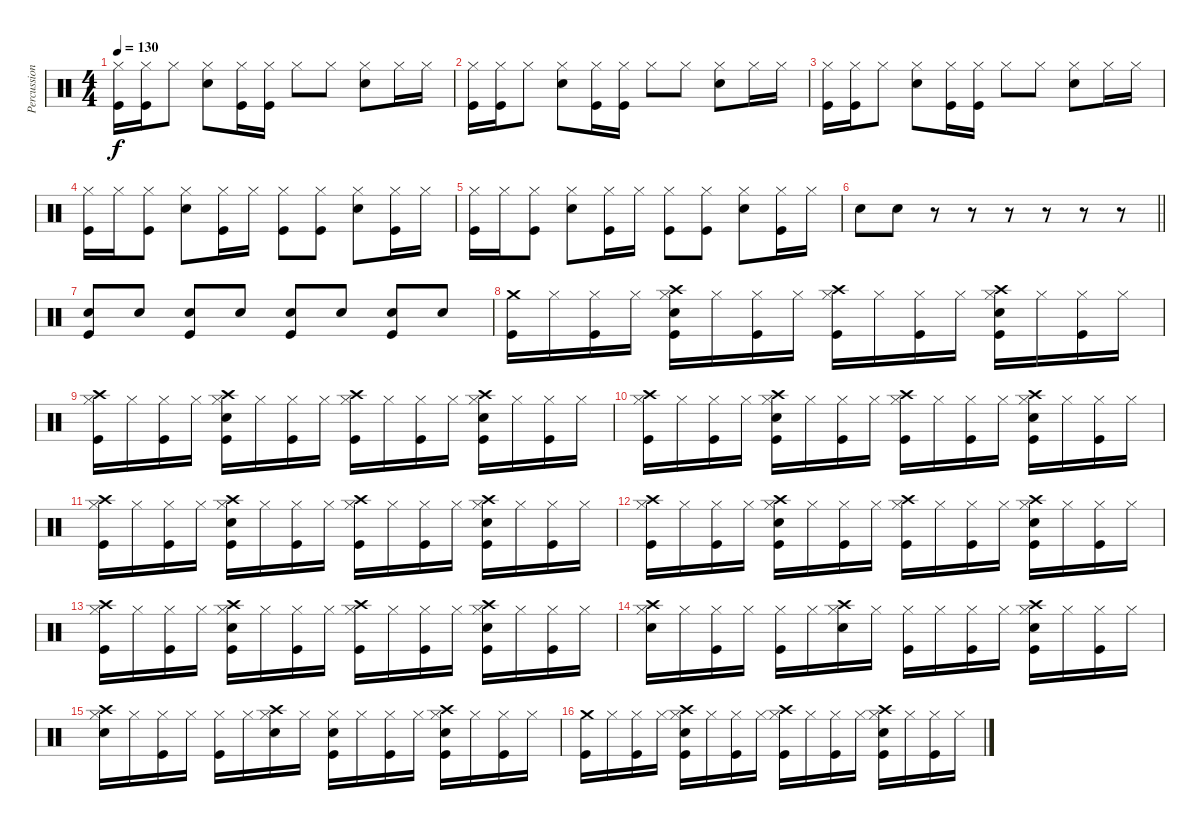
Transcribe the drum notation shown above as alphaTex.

\track ("Percussion" "Percussion") {instrument percussion}
\staff {score}
\articulation defaults
\ts (4 4)
\tempo 130
\clef neutral
\ks c
("Hi-Hat (closed)" "Kick (hit)").16{dy f} ("Hi-Hat (closed)" "Kick (hit)").16 "Hi-Hat (closed)".8 ("Hi-Hat (closed)" "Electric Snare (hit)").8 ("Hi-Hat (closed)" "Kick (hit)").16 ("Hi-Hat (closed)" "Kick (hit)").16 "Hi-Hat (closed)".8 "Hi-Hat (closed)".8 ("Hi-Hat (closed)" "Electric Snare (hit)").8 "Hi-Hat (closed)".16 "Hi-Hat (closed)".16 |
("Hi-Hat (closed)" "Kick (hit)").16 ("Hi-Hat (closed)" "Kick (hit)").16 "Hi-Hat (closed)".8 ("Hi-Hat (closed)" "Electric Snare (hit)").8 ("Hi-Hat (closed)" "Kick (hit)").16 ("Hi-Hat (closed)" "Kick (hit)").16 "Hi-Hat (closed)".8 "Hi-Hat (closed)".8 ("Hi-Hat (closed)" "Electric Snare (hit)").8 "Hi-Hat (closed)".16 "Hi-Hat (closed)".16 |
("Hi-Hat (closed)" "Kick (hit)").16 ("Hi-Hat (closed)" "Kick (hit)").16 "Hi-Hat (closed)".8 ("Hi-Hat (closed)" "Electric Snare (hit)").8 ("Hi-Hat (closed)" "Kick (hit)").16 ("Hi-Hat (closed)" "Kick (hit)").16 "Hi-Hat (closed)".8 "Hi-Hat (closed)".8 ("Hi-Hat (closed)" "Electric Snare (hit)").8 "Hi-Hat (closed)".16 "Hi-Hat (closed)".16 |
("Hi-Hat (closed)" "Kick (hit)").16 "Hi-Hat (closed)".16 ("Hi-Hat (closed)" "Kick (hit)").8 ("Hi-Hat (closed)" "Electric Snare (hit)").8 ("Hi-Hat (closed)" "Kick (hit)").16 "Hi-Hat (closed)".16 ("Hi-Hat (closed)" "Kick (hit)").8 ("Hi-Hat (closed)" "Kick (hit)").8 ("Hi-Hat (closed)" "Electric Snare (hit)").8 ("Hi-Hat (closed)" "Kick (hit)").16 "Hi-Hat (closed)".16 |
("Hi-Hat (closed)" "Kick (hit)").16 "Hi-Hat (closed)".16 ("Hi-Hat (closed)" "Kick (hit)").8 ("Hi-Hat (closed)" "Electric Snare (hit)").8 ("Hi-Hat (closed)" "Kick (hit)").16 "Hi-Hat (closed)".16 ("Hi-Hat (closed)" "Kick (hit)").8 ("Hi-Hat (closed)" "Kick (hit)").8 ("Hi-Hat (closed)" "Electric Snare (hit)").8 ("Hi-Hat (closed)" "Kick (hit)").16 "Hi-Hat (closed)".16 |
\barLineRight lightlight "Electric Snare (hit)".8 "Electric Snare (hit)".8
r.8 r.8 r.8 r.8 r.8 r.8 |
("Electric Snare (hit)" "Kick (hit)").8 "Electric Snare (hit)".8 ("Electric Snare (hit)" "Kick (hit)").8 "Electric Snare (hit)".8 ("Electric Snare (hit)" "Kick (hit)").8 "Electric Snare (hit)".8 ("Electric Snare (hit)" "Kick (hit)").8 "Electric Snare (hit)".8 |
("Crash medium (hit)" "Kick (hit)").16 "Hi-Hat (closed)".16 ("Hi-Hat (closed)" "Kick (hit)").16 "Hi-Hat (closed)".16 ("Crash high (hit)" "Hi-Hat (closed)" "Electric Snare (hit)" "Kick (hit)").16 "Hi-Hat (closed)".16 ("Hi-Hat (closed)" "Kick (hit)").16 "Hi-Hat (closed)".16 ("Crash high (hit)" "Hi-Hat (closed)" "Kick (hit)").16 "Hi-Hat (closed)".16 ("Hi-Hat (closed)" "Kick (hit)").16 "Hi-Hat (closed)".16 ("Crash high (hit)" "Hi-Hat (closed)" "Electric Snare (hit)" "Kick (hit)").16 "Hi-Hat (closed)".16 ("Hi-Hat (closed)" "Kick (hit)").16 "Hi-Hat (closed)".16 |
("Crash high (hit)" "Hi-Hat (closed)" "Kick (hit)").16 "Hi-Hat (closed)".16 ("Hi-Hat (closed)" "Kick (hit)").16 "Hi-Hat (closed)".16 ("Crash high (hit)" "Hi-Hat (closed)" "Electric Snare (hit)" "Kick (hit)").16 "Hi-Hat (closed)".16 ("Hi-Hat (closed)" "Kick (hit)").16 "Hi-Hat (closed)".16 ("Crash high (hit)" "Hi-Hat (closed)" "Kick (hit)").16 "Hi-Hat (closed)".16 ("Hi-Hat (closed)" "Kick (hit)").16 "Hi-Hat (closed)".16 ("Crash high (hit)" "Hi-Hat (closed)" "Electric Snare (hit)" "Kick (hit)").16 "Hi-Hat (closed)".16 ("Hi-Hat (closed)" "Kick (hit)").16 "Hi-Hat (closed)".16 |
("Crash high (hit)" "Hi-Hat (closed)" "Kick (hit)").16 "Hi-Hat (closed)".16 ("Hi-Hat (closed)" "Kick (hit)").16 "Hi-Hat (closed)".16 ("Crash high (hit)" "Hi-Hat (closed)" "Electric Snare (hit)" "Kick (hit)").16 "Hi-Hat (closed)".16 ("Hi-Hat (closed)" "Kick (hit)").16 "Hi-Hat (closed)".16 ("Crash high (hit)" "Hi-Hat (closed)" "Kick (hit)").16 "Hi-Hat (closed)".16 ("Hi-Hat (closed)" "Kick (hit)").16 "Hi-Hat (closed)".16 ("Crash high (hit)" "Hi-Hat (closed)" "Electric Snare (hit)" "Kick (hit)").16 "Hi-Hat (closed)".16 ("Hi-Hat (closed)" "Kick (hit)").16 "Hi-Hat (closed)".16 |
("Crash high (hit)" "Hi-Hat (closed)" "Kick (hit)").16 "Hi-Hat (closed)".16 ("Hi-Hat (closed)" "Kick (hit)").16 "Hi-Hat (closed)".16 ("Crash high (hit)" "Hi-Hat (closed)" "Electric Snare (hit)" "Kick (hit)").16 "Hi-Hat (closed)".16 ("Hi-Hat (closed)" "Kick (hit)").16 "Hi-Hat (closed)".16 ("Crash high (hit)" "Hi-Hat (closed)" "Kick (hit)").16 "Hi-Hat (closed)".16 ("Hi-Hat (closed)" "Kick (hit)").16 "Hi-Hat (closed)".16 ("Crash high (hit)" "Hi-Hat (closed)" "Electric Snare (hit)" "Kick (hit)").16 "Hi-Hat (closed)".16 ("Hi-Hat (closed)" "Kick (hit)").16 "Hi-Hat (closed)".16 |
("Crash high (hit)" "Hi-Hat (closed)" "Kick (hit)").16 "Hi-Hat (closed)".16 ("Hi-Hat (closed)" "Kick (hit)").16 "Hi-Hat (closed)".16 ("Crash high (hit)" "Hi-Hat (closed)" "Electric Snare (hit)" "Kick (hit)").16 "Hi-Hat (closed)".16 ("Hi-Hat (closed)" "Kick (hit)").16 "Hi-Hat (closed)".16 ("Crash high (hit)" "Hi-Hat (closed)" "Kick (hit)").16 "Hi-Hat (closed)".16 ("Hi-Hat (closed)" "Kick (hit)").16 "Hi-Hat (closed)".16 ("Crash high (hit)" "Hi-Hat (closed)" "Electric Snare (hit)" "Kick (hit)").16 "Hi-Hat (closed)".16 ("Hi-Hat (closed)" "Kick (hit)").16 "Hi-Hat (closed)".16 |
("Crash high (hit)" "Hi-Hat (closed)" "Kick (hit)").16 "Hi-Hat (closed)".16 ("Hi-Hat (closed)" "Kick (hit)").16 "Hi-Hat (closed)".16 ("Crash high (hit)" "Hi-Hat (closed)" "Electric Snare (hit)" "Kick (hit)").16 "Hi-Hat (closed)".16 ("Hi-Hat (closed)" "Kick (hit)").16 "Hi-Hat (closed)".16 ("Crash high (hit)" "Hi-Hat (closed)" "Kick (hit)").16 "Hi-Hat (closed)".16 ("Hi-Hat (closed)" "Kick (hit)").16 "Hi-Hat (closed)".16 ("Crash high (hit)" "Hi-Hat (closed)" "Electric Snare (hit)" "Kick (hit)").16 "Hi-Hat (closed)".16 ("Hi-Hat (closed)" "Kick (hit)").16 "Hi-Hat (closed)".16 |
("Crash high (hit)" "Hi-Hat (closed)" "Electric Snare (hit)").16 "Hi-Hat (closed)".16 ("Hi-Hat (closed)" "Kick (hit)").16 "Hi-Hat (closed)".16 ("Hi-Hat (closed)" "Kick (hit)").16 "Hi-Hat (closed)".16 ("Crash high (hit)" "Hi-Hat (closed)" "Electric Snare (hit)").16 "Hi-Hat (closed)".16 ("Hi-Hat (closed)" "Kick (hit)").16 "Hi-Hat (closed)".16 ("Hi-Hat (closed)" "Kick (hit)").16 "Hi-Hat (closed)".16 ("Crash high (hit)" "Hi-Hat (closed)" "Electric Snare (hit)" "Kick (hit)").16 "Hi-Hat (closed)".16 ("Hi-Hat (closed)" "Kick (hit)").16 "Hi-Hat (closed)".16 |
("Crash high (hit)" "Hi-Hat (closed)" "Electric Snare (hit)").16 "Hi-Hat (closed)".16 ("Hi-Hat (closed)" "Kick (hit)").16 "Hi-Hat (closed)".16 ("Hi-Hat (closed)" "Kick (hit)").16 "Hi-Hat (closed)".16 ("Crash high (hit)" "Hi-Hat (closed)" "Electric Snare (hit)").16 "Hi-Hat (closed)".16 ("Hi-Hat (closed)" "Electric Snare (hit)" "Kick (hit)").16 "Hi-Hat (closed)".16 ("Hi-Hat (closed)" "Kick (hit)").16 "Hi-Hat (closed)".16 ("Crash high (hit)" "Hi-Hat (closed)" "Electric Snare (hit)" "Kick (hit)").16 "Hi-Hat (closed)".16 ("Hi-Hat (closed)" "Kick (hit)").16 "Hi-Hat (closed)".16 |
("Crash medium (hit)" "Kick (hit)").16 "Hi-Hat (closed)".16 ("Hi-Hat (closed)" "Kick (hit)").16 "Hi-Hat (closed)".16 ("Crash high (hit)" "Hi-Hat (closed)" "Electric Snare (hit)" "Kick (hit)").16 "Hi-Hat (closed)".16 ("Hi-Hat (closed)" "Kick (hit)").16 "Hi-Hat (closed)".16 ("Crash high (hit)" "Hi-Hat (closed)" "Kick (hit)").16 "Hi-Hat (closed)".16 ("Hi-Hat (closed)" "Kick (hit)").16 "Hi-Hat (closed)".16 ("Crash high (hit)" "Hi-Hat (closed)" "Electric Snare (hit)" "Kick (hit)").16 "Hi-Hat (closed)".16 ("Hi-Hat (closed)" "Kick (hit)").16 "Hi-Hat (closed)".16
